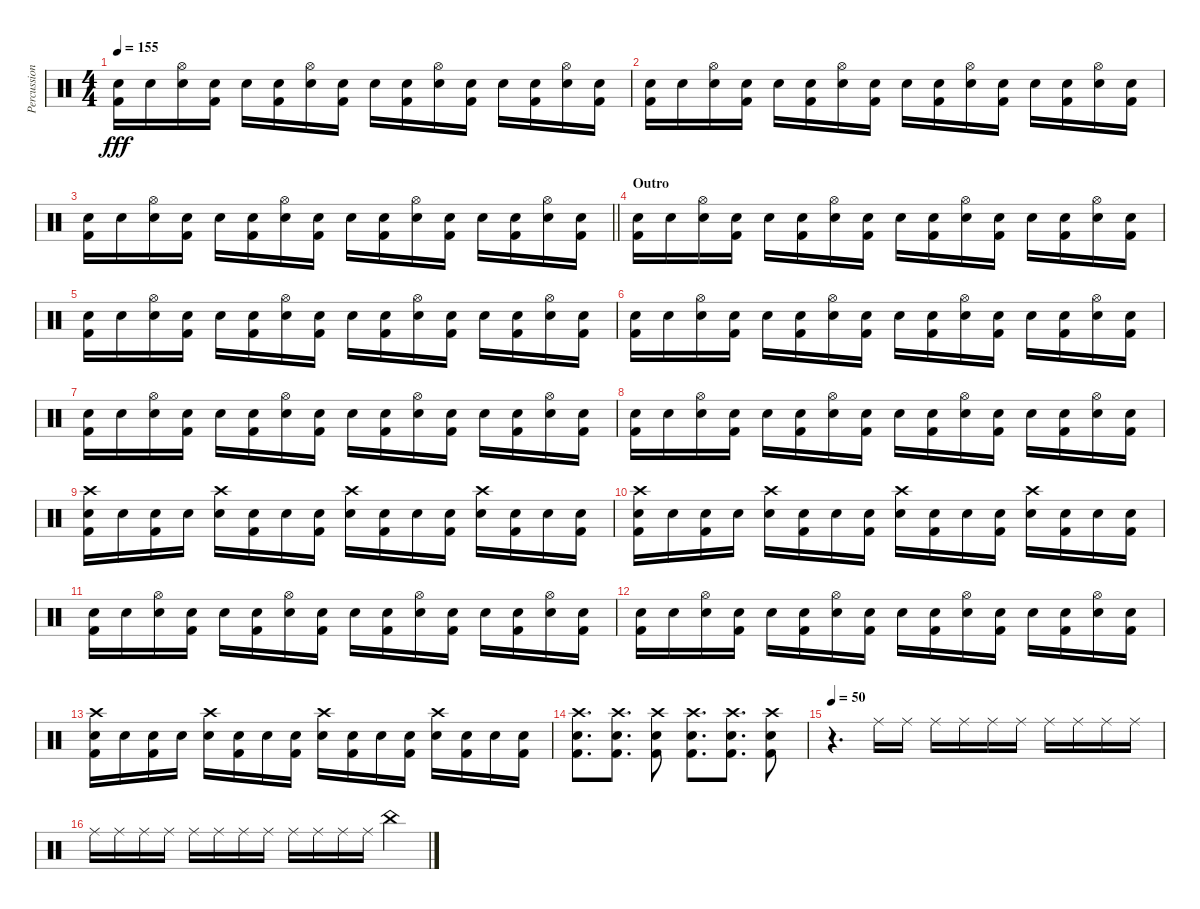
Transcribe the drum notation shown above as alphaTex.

\track ("Percussion" "Percussion") {instrument percussion}
\staff {score}
\articulation defaults
\ts (4 4)
\tempo 155
\clef neutral
\ks c
("Snare (hit) 2" "Kick (hit) 2").16{dy fff} "Snare (hit) 2".16 ("Snare (hit) 2" "Hi-Hat (open)").16 ("Snare (hit) 2" "Kick (hit) 2").16 "Snare (hit) 2".16 ("Snare (hit) 2" "Kick (hit) 2").16 ("Snare (hit) 2" "Hi-Hat (open)").16 ("Snare (hit) 2" "Kick (hit) 2").16 "Snare (hit) 2".16 ("Snare (hit) 2" "Kick (hit) 2").16 ("Snare (hit) 2" "Hi-Hat (open)").16 ("Snare (hit) 2" "Kick (hit) 2").16 "Snare (hit) 2".16 ("Snare (hit) 2" "Kick (hit) 2").16 ("Snare (hit) 2" "Hi-Hat (open)").16 ("Snare (hit) 2" "Kick (hit) 2").16 |
("Snare (hit) 2" "Kick (hit) 2").16 "Snare (hit) 2".16 ("Snare (hit) 2" "Hi-Hat (open)").16 ("Snare (hit) 2" "Kick (hit) 2").16 "Snare (hit) 2".16 ("Snare (hit) 2" "Kick (hit) 2").16 ("Snare (hit) 2" "Hi-Hat (open)").16 ("Snare (hit) 2" "Kick (hit) 2").16 "Snare (hit) 2".16 ("Snare (hit) 2" "Kick (hit) 2").16 ("Snare (hit) 2" "Hi-Hat (open)").16 ("Snare (hit) 2" "Kick (hit) 2").16 "Snare (hit) 2".16 ("Snare (hit) 2" "Kick (hit) 2").16 ("Snare (hit) 2" "Hi-Hat (open)").16 ("Snare (hit) 2" "Kick (hit) 2").16 |
\barLineRight lightlight
("Snare (hit) 2" "Kick (hit) 2").16 "Snare (hit) 2".16 ("Snare (hit) 2" "Hi-Hat (open)").16 ("Snare (hit) 2" "Kick (hit) 2").16 "Snare (hit) 2".16 ("Snare (hit) 2" "Kick (hit) 2").16 ("Snare (hit) 2" "Hi-Hat (open)").16 ("Snare (hit) 2" "Kick (hit) 2").16 "Snare (hit) 2".16 ("Snare (hit) 2" "Kick (hit) 2").16 ("Snare (hit) 2" "Hi-Hat (open)").16 ("Snare (hit) 2" "Kick (hit) 2").16 "Snare (hit) 2".16 ("Snare (hit) 2" "Kick (hit) 2").16 ("Snare (hit) 2" "Hi-Hat (open)").16 ("Snare (hit) 2" "Kick (hit) 2").16 |
\section ("" "Outro")
("Snare (hit) 2" "Kick (hit) 2").16 "Snare (hit) 2".16 ("Snare (hit) 2" "Hi-Hat (open)").16 ("Snare (hit) 2" "Kick (hit) 2").16 "Snare (hit) 2".16 ("Snare (hit) 2" "Kick (hit) 2").16 ("Snare (hit) 2" "Hi-Hat (open)").16 ("Snare (hit) 2" "Kick (hit) 2").16 "Snare (hit) 2".16 ("Snare (hit) 2" "Kick (hit) 2").16 ("Snare (hit) 2" "Hi-Hat (open)").16 ("Snare (hit) 2" "Kick (hit) 2").16 "Snare (hit) 2".16 ("Snare (hit) 2" "Kick (hit) 2").16 ("Snare (hit) 2" "Hi-Hat (open)").16 ("Snare (hit) 2" "Kick (hit) 2").16 |
("Snare (hit) 2" "Kick (hit) 2").16 "Snare (hit) 2".16 ("Snare (hit) 2" "Hi-Hat (open)").16 ("Snare (hit) 2" "Kick (hit) 2").16 "Snare (hit) 2".16 ("Snare (hit) 2" "Kick (hit) 2").16 ("Snare (hit) 2" "Hi-Hat (open)").16 ("Snare (hit) 2" "Kick (hit) 2").16 "Snare (hit) 2".16 ("Snare (hit) 2" "Kick (hit) 2").16 ("Snare (hit) 2" "Hi-Hat (open)").16 ("Snare (hit) 2" "Kick (hit) 2").16 "Snare (hit) 2".16 ("Snare (hit) 2" "Kick (hit) 2").16 ("Snare (hit) 2" "Hi-Hat (open)").16 ("Snare (hit) 2" "Kick (hit) 2").16 |
("Snare (hit) 2" "Kick (hit) 2").16 "Snare (hit) 2".16 ("Snare (hit) 2" "Hi-Hat (open)").16 ("Snare (hit) 2" "Kick (hit) 2").16 "Snare (hit) 2".16 ("Snare (hit) 2" "Kick (hit) 2").16 ("Snare (hit) 2" "Hi-Hat (open)").16 ("Snare (hit) 2" "Kick (hit) 2").16 "Snare (hit) 2".16 ("Snare (hit) 2" "Kick (hit) 2").16 ("Snare (hit) 2" "Hi-Hat (open)").16 ("Snare (hit) 2" "Kick (hit) 2").16 "Snare (hit) 2".16 ("Snare (hit) 2" "Kick (hit) 2").16 ("Snare (hit) 2" "Hi-Hat (open)").16 ("Snare (hit) 2" "Kick (hit) 2").16 |
("Snare (hit) 2" "Kick (hit) 2").16 "Snare (hit) 2".16 ("Snare (hit) 2" "Hi-Hat (open)").16 ("Snare (hit) 2" "Kick (hit) 2").16 "Snare (hit) 2".16 ("Snare (hit) 2" "Kick (hit) 2").16 ("Snare (hit) 2" "Hi-Hat (open)").16 ("Snare (hit) 2" "Kick (hit) 2").16 "Snare (hit) 2".16 ("Snare (hit) 2" "Kick (hit) 2").16 ("Snare (hit) 2" "Hi-Hat (open)").16 ("Snare (hit) 2" "Kick (hit) 2").16 "Snare (hit) 2".16 ("Snare (hit) 2" "Kick (hit) 2").16 ("Snare (hit) 2" "Hi-Hat (open)").16 ("Snare (hit) 2" "Kick (hit) 2").16 |
("Snare (hit) 2" "Kick (hit) 2").16 "Snare (hit) 2".16 ("Snare (hit) 2" "Hi-Hat (open)").16 ("Snare (hit) 2" "Kick (hit) 2").16 "Snare (hit) 2".16 ("Snare (hit) 2" "Kick (hit) 2").16 ("Snare (hit) 2" "Hi-Hat (open)").16 ("Snare (hit) 2" "Kick (hit) 2").16 "Snare (hit) 2".16 ("Snare (hit) 2" "Kick (hit) 2").16 ("Snare (hit) 2" "Hi-Hat (open)").16 ("Snare (hit) 2" "Kick (hit) 2").16 "Snare (hit) 2".16 ("Snare (hit) 2" "Kick (hit) 2").16 ("Snare (hit) 2" "Hi-Hat (open)").16 ("Snare (hit) 2" "Kick (hit) 2").16 |
("Snare (hit) 2" "Crash high (hit)" "Kick (hit) 2").16 "Snare (hit) 2".16 ("Snare (hit) 2" "Kick (hit) 2").16 "Snare (hit) 2".16 ("Snare (hit) 2" "Crash high (hit)").16 ("Snare (hit) 2" "Kick (hit) 2").16 "Snare (hit) 2".16 ("Snare (hit) 2" "Kick (hit) 2").16 ("Snare (hit) 2" "Crash high (hit)").16 ("Snare (hit) 2" "Kick (hit) 2").16 "Snare (hit) 2".16 ("Snare (hit) 2" "Kick (hit) 2").16 ("Snare (hit) 2" "Crash high (hit)").16 ("Snare (hit) 2" "Kick (hit) 2").16 "Snare (hit) 2".16 ("Snare (hit) 2" "Kick (hit) 2").16 |
("Snare (hit) 2" "Crash high (hit)" "Kick (hit) 2").16 "Snare (hit) 2".16 ("Snare (hit) 2" "Kick (hit) 2").16 "Snare (hit) 2".16 ("Snare (hit) 2" "Crash high (hit)").16 ("Snare (hit) 2" "Kick (hit) 2").16 "Snare (hit) 2".16 ("Snare (hit) 2" "Kick (hit) 2").16 ("Snare (hit) 2" "Crash high (hit)").16 ("Snare (hit) 2" "Kick (hit) 2").16 "Snare (hit) 2".16 ("Snare (hit) 2" "Kick (hit) 2").16 ("Snare (hit) 2" "Crash high (hit)").16 ("Snare (hit) 2" "Kick (hit) 2").16 "Snare (hit) 2".16 ("Snare (hit) 2" "Kick (hit) 2").16 |
("Snare (hit) 2" "Kick (hit) 2").16 "Snare (hit) 2".16 ("Snare (hit) 2" "Hi-Hat (open)").16 ("Snare (hit) 2" "Kick (hit) 2").16 "Snare (hit) 2".16 ("Snare (hit) 2" "Kick (hit) 2").16 ("Snare (hit) 2" "Hi-Hat (open)").16 ("Snare (hit) 2" "Kick (hit) 2").16 "Snare (hit) 2".16 ("Snare (hit) 2" "Kick (hit) 2").16 ("Snare (hit) 2" "Hi-Hat (open)").16 ("Snare (hit) 2" "Kick (hit) 2").16 "Snare (hit) 2".16 ("Snare (hit) 2" "Kick (hit) 2").16 ("Snare (hit) 2" "Hi-Hat (open)").16 ("Snare (hit) 2" "Kick (hit) 2").16 |
("Snare (hit) 2" "Kick (hit) 2").16 "Snare (hit) 2".16 ("Snare (hit) 2" "Hi-Hat (open)").16 ("Snare (hit) 2" "Kick (hit) 2").16 "Snare (hit) 2".16 ("Snare (hit) 2" "Kick (hit) 2").16 ("Snare (hit) 2" "Hi-Hat (open)").16 ("Snare (hit) 2" "Kick (hit) 2").16 "Snare (hit) 2".16 ("Snare (hit) 2" "Kick (hit) 2").16 ("Snare (hit) 2" "Hi-Hat (open)").16 ("Snare (hit) 2" "Kick (hit) 2").16 "Snare (hit) 2".16 ("Snare (hit) 2" "Kick (hit) 2").16 ("Snare (hit) 2" "Hi-Hat (open)").16 ("Snare (hit) 2" "Kick (hit) 2").16 |
("Snare (hit) 2" "Crash high (hit)" "Kick (hit) 2").16 "Snare (hit) 2".16 ("Snare (hit) 2" "Kick (hit) 2").16 "Snare (hit) 2".16 ("Snare (hit) 2" "Crash high (hit)").16 ("Snare (hit) 2" "Kick (hit) 2").16 "Snare (hit) 2".16 ("Snare (hit) 2" "Kick (hit) 2").16 ("Snare (hit) 2" "Crash high (hit)").16 ("Snare (hit) 2" "Kick (hit) 2").16 "Snare (hit) 2".16 ("Snare (hit) 2" "Kick (hit) 2").16 ("Snare (hit) 2" "Crash high (hit)").16 ("Snare (hit) 2" "Kick (hit) 2").16 "Snare (hit) 2".16 ("Snare (hit) 2" "Kick (hit) 2").16 |
("Crash high (hit)" "Snare (hit) 2" "Kick (hit) 2").8{d volume 10} ("Crash high (hit)" "Snare (hit) 2" "Kick (hit) 2").8{d} ("Crash high (hit)" "Snare (hit) 2" "Kick (hit) 2").8 ("Crash high (hit)" "Snare (hit) 2" "Kick (hit) 2").8{d} ("Crash high (hit)" "Snare (hit) 2" "Kick (hit) 2").8{d} ("Crash high (hit)" "Snare (hit) 2" "Kick (hit) 2").8 |
\tempo 50
r.4{d} "Ride (middle)".16 "Ride (middle)".16 "Ride (middle)".16 "Ride (middle)".16 "Ride (middle)".16 "Ride (middle)".16 "Ride (middle)".16 "Ride (middle)".16 "Ride (middle)".16 "Ride (middle)".16 |
"Ride (middle)".16 "Ride (middle)".16 "Ride (middle)".16 "Ride (middle)".16 "Ride (middle)".16 "Ride (middle)".16 "Ride (middle)".16 "Ride (middle)".16 "Ride (middle)".16 "Ride (middle)".16 "Ride (middle)".16 "Ride (middle)".16 "China (hit)".4
